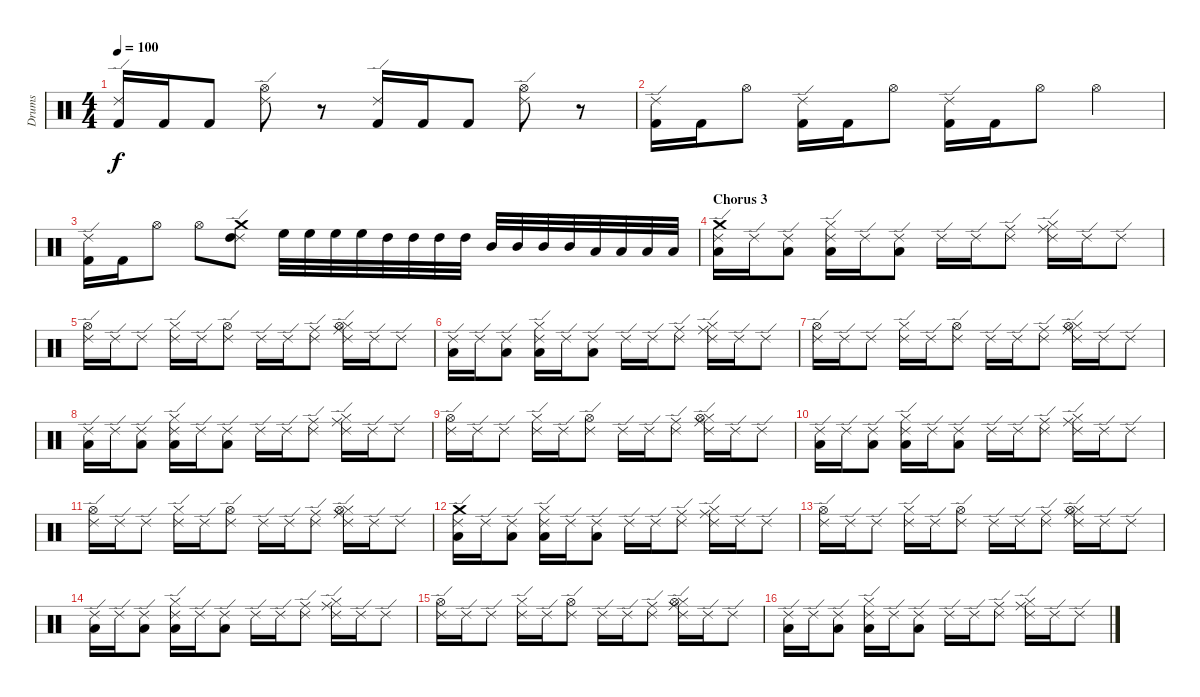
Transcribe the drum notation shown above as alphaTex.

\track ("Drums" "Drums") {instrument percussion}
\staff {score}
\articulation defaults
\ts (4 4)
\tempo 100
\clef neutral
\ks c
("Ride (edge) 2" "Kick (hit) 2").16{dy f} "Kick (hit) 2".16 "Kick (hit) 2".8 ("Ride (edge) 2" "Hi-Hat (open)").8 r.8 ("Ride (edge) 2" "Kick (hit) 2").16 "Kick (hit) 2".16 "Kick (hit) 2".8 ("Ride (edge) 2" "Hi-Hat (open)").8 r.8 |
("Ride (edge) 2" "Kick (hit) 2").16 "Kick (hit) 2".16 "Hi-Hat (open)".8 ("Ride (edge) 2" "Kick (hit) 2").16 "Kick (hit) 2".16 "Hi-Hat (open)".8 ("Ride (edge) 2" "Kick (hit) 2").16 "Kick (hit) 2".16 "Hi-Hat (open)".8 "Hi-Hat (open)".4 |
("Ride (edge) 2" "Kick (hit) 2").16 "Kick (hit) 2".16 "Hi-Hat (open)".8 "Hi-Hat (open)".8 ("Ride (edge) 2" "Crash medium (hit)" "High Tom (hit)").8 "High Floor Tom (hit)".32 "High Floor Tom (hit)".32 "High Floor Tom (hit)".32 "High Floor Tom (hit)".32 "High Tom (hit)".32 "High Tom (hit)".32 "High Tom (hit)".32 "High Tom (hit)".32 "Mid Tom (hit)".32 "Mid Tom (hit)".32 "Mid Tom (hit)".32 "Mid Tom (hit)".32 "Low Tom (hit)".32 "Low Tom (hit)".32 "Low Tom (hit)".32 "Low Tom (hit)".32 |
\section ("" "Chorus 3")
("Ride (edge) 2" "Low Tom (hit)" "Crash medium (hit)").16 "Ride (edge) 2".16 ("Ride (edge) 2" "Low Tom (hit)").8 ("Ride (edge) 2" "Hi-Hat (closed)" "Low Tom (hit)").16 "Ride (edge) 2".16 ("Ride (edge) 2" "Low Tom (hit)").8 "Ride (edge) 2".16 "Ride (edge) 2".16 ("Ride (edge) 2" "Ride (middle)").8 ("Ride (edge) 2" "Hi-Hat (closed)" "Ride (middle)").16 "Ride (edge) 2".16 "Ride (edge) 2".8 |
("Ride (edge) 2" "Hi-Hat (open)").16 "Ride (edge) 2".16 "Ride (edge) 2".8 ("Ride (edge) 2" "Hi-Hat (closed)").16 "Ride (edge) 2".16 ("Ride (edge) 2" "Hi-Hat (open)").8 "Ride (edge) 2".16 "Ride (edge) 2".16 ("Ride (edge) 2" "Ride (middle)").8 ("Ride (edge) 2" "Hi-Hat (closed)" "Ride (middle)" "Hi-Hat (open)").16 "Ride (edge) 2".16 "Ride (edge) 2".8 |
("Ride (edge) 2" "Low Tom (hit)").16 "Ride (edge) 2".16 ("Ride (edge) 2" "Low Tom (hit)").8 ("Ride (edge) 2" "Hi-Hat (closed)" "Low Tom (hit)").16 "Ride (edge) 2".16 ("Ride (edge) 2" "Low Tom (hit)").8 "Ride (edge) 2".16 "Ride (edge) 2".16 ("Ride (edge) 2" "Ride (middle)").8 ("Ride (edge) 2" "Hi-Hat (closed)" "Ride (middle)").16 "Ride (edge) 2".16 "Ride (edge) 2".8 |
("Ride (edge) 2" "Hi-Hat (open)").16 "Ride (edge) 2".16 "Ride (edge) 2".8 ("Ride (edge) 2" "Hi-Hat (closed)").16 "Ride (edge) 2".16 ("Ride (edge) 2" "Hi-Hat (open)").8 "Ride (edge) 2".16 "Ride (edge) 2".16 ("Ride (edge) 2" "Ride (middle)").8 ("Ride (edge) 2" "Hi-Hat (closed)" "Ride (middle)" "Hi-Hat (open)").16 "Ride (edge) 2".16 "Ride (edge) 2".8 |
("Ride (edge) 2" "Low Tom (hit)").16 "Ride (edge) 2".16 ("Ride (edge) 2" "Low Tom (hit)").8 ("Ride (edge) 2" "Hi-Hat (closed)" "Low Tom (hit)").16 "Ride (edge) 2".16 ("Ride (edge) 2" "Low Tom (hit)").8 "Ride (edge) 2".16 "Ride (edge) 2".16 ("Ride (edge) 2" "Ride (middle)").8 ("Ride (edge) 2" "Hi-Hat (closed)" "Ride (middle)").16 "Ride (edge) 2".16 "Ride (edge) 2".8 |
("Ride (edge) 2" "Hi-Hat (open)").16 "Ride (edge) 2".16 "Ride (edge) 2".8 ("Ride (edge) 2" "Hi-Hat (closed)").16 "Ride (edge) 2".16 ("Ride (edge) 2" "Hi-Hat (open)").8 "Ride (edge) 2".16 "Ride (edge) 2".16 ("Ride (edge) 2" "Ride (middle)").8 ("Ride (edge) 2" "Hi-Hat (closed)" "Ride (middle)" "Hi-Hat (open)").16 "Ride (edge) 2".16 "Ride (edge) 2".8 |
("Ride (edge) 2" "Low Tom (hit)").16 "Ride (edge) 2".16 ("Ride (edge) 2" "Low Tom (hit)").8 ("Ride (edge) 2" "Hi-Hat (closed)" "Low Tom (hit)").16 "Ride (edge) 2".16 ("Ride (edge) 2" "Low Tom (hit)").8 "Ride (edge) 2".16 "Ride (edge) 2".16 ("Ride (edge) 2" "Ride (middle)").8 ("Ride (edge) 2" "Hi-Hat (closed)" "Ride (middle)").16 "Ride (edge) 2".16 "Ride (edge) 2".8 |
("Ride (edge) 2" "Hi-Hat (open)").16 "Ride (edge) 2".16 "Ride (edge) 2".8 ("Ride (edge) 2" "Hi-Hat (closed)").16 "Ride (edge) 2".16 ("Ride (edge) 2" "Hi-Hat (open)").8 "Ride (edge) 2".16 "Ride (edge) 2".16 ("Ride (edge) 2" "Ride (middle)").8 ("Ride (edge) 2" "Hi-Hat (closed)" "Ride (middle)" "Hi-Hat (open)").16 "Ride (edge) 2".16 "Ride (edge) 2".8 |
("Ride (edge) 2" "Low Tom (hit)" "Crash medium (hit)").16 "Ride (edge) 2".16 ("Ride (edge) 2" "Low Tom (hit)").8 ("Ride (edge) 2" "Hi-Hat (closed)" "Low Tom (hit)").16 "Ride (edge) 2".16 ("Ride (edge) 2" "Low Tom (hit)").8 "Ride (edge) 2".16 "Ride (edge) 2".16 ("Ride (edge) 2" "Ride (middle)").8 ("Ride (edge) 2" "Hi-Hat (closed)" "Ride (middle)").16 "Ride (edge) 2".16 "Ride (edge) 2".8 |
("Ride (edge) 2" "Hi-Hat (open)").16 "Ride (edge) 2".16 "Ride (edge) 2".8 ("Ride (edge) 2" "Hi-Hat (closed)").16 "Ride (edge) 2".16 ("Ride (edge) 2" "Hi-Hat (open)").8 "Ride (edge) 2".16 "Ride (edge) 2".16 ("Ride (edge) 2" "Ride (middle)").8 ("Ride (edge) 2" "Hi-Hat (closed)" "Ride (middle)" "Hi-Hat (open)").16 "Ride (edge) 2".16 "Ride (edge) 2".8 |
("Ride (edge) 2" "Low Tom (hit)").16 "Ride (edge) 2".16 ("Ride (edge) 2" "Low Tom (hit)").8 ("Ride (edge) 2" "Hi-Hat (closed)" "Low Tom (hit)").16 "Ride (edge) 2".16 ("Ride (edge) 2" "Low Tom (hit)").8 "Ride (edge) 2".16 "Ride (edge) 2".16 ("Ride (edge) 2" "Ride (middle)").8 ("Ride (edge) 2" "Hi-Hat (closed)" "Ride (middle)").16 "Ride (edge) 2".16 "Ride (edge) 2".8 |
("Ride (edge) 2" "Hi-Hat (open)").16 "Ride (edge) 2".16 "Ride (edge) 2".8 ("Ride (edge) 2" "Hi-Hat (closed)").16 "Ride (edge) 2".16 ("Ride (edge) 2" "Hi-Hat (open)").8 "Ride (edge) 2".16 "Ride (edge) 2".16 ("Ride (edge) 2" "Ride (middle)").8 ("Ride (edge) 2" "Hi-Hat (closed)" "Ride (middle)" "Hi-Hat (open)").16 "Ride (edge) 2".16 "Ride (edge) 2".8 |
("Ride (edge) 2" "Low Tom (hit)").16 "Ride (edge) 2".16 ("Ride (edge) 2" "Low Tom (hit)").8 ("Ride (edge) 2" "Hi-Hat (closed)" "Low Tom (hit)").16 "Ride (edge) 2".16 ("Ride (edge) 2" "Low Tom (hit)").8 "Ride (edge) 2".16 "Ride (edge) 2".16 ("Ride (edge) 2" "Ride (middle)").8 ("Ride (edge) 2" "Hi-Hat (closed)" "Ride (middle)").16 "Ride (edge) 2".16 "Ride (edge) 2".8
